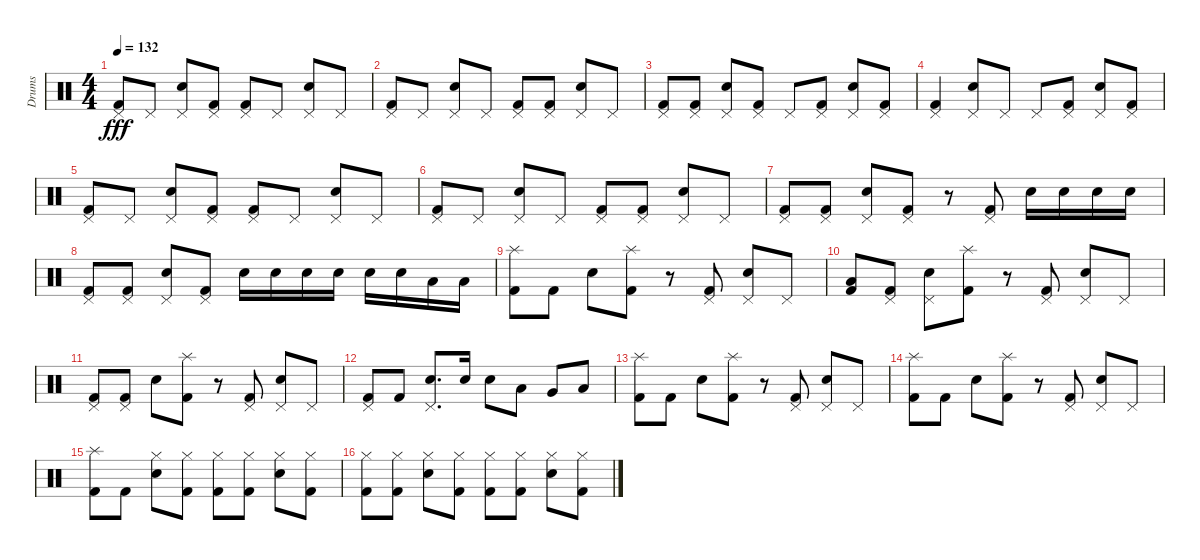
\track ("Drums" "Drums") {instrument percussion}
\staff {score}
\articulation defaults
\ts (4 4)
\tempo 132
\clef neutral
\ks c
("Kick (hit) 2" "Pedal Hi-Hat (hit)").8{dy fff} "Pedal Hi-Hat (hit)".8 ("Electric Snare (hit)" "Pedal Hi-Hat (hit)").8 ("Pedal Hi-Hat (hit)" "Kick (hit) 2").8 ("Kick (hit) 2" "Pedal Hi-Hat (hit)").8 "Pedal Hi-Hat (hit)".8 ("Electric Snare (hit)" "Pedal Hi-Hat (hit)").8 "Pedal Hi-Hat (hit)".8 |
("Kick (hit) 2" "Pedal Hi-Hat (hit)").8 "Pedal Hi-Hat (hit)".8 ("Electric Snare (hit)" "Pedal Hi-Hat (hit)").8 "Pedal Hi-Hat (hit)".8 ("Kick (hit) 2" "Pedal Hi-Hat (hit)").8 ("Pedal Hi-Hat (hit)" "Kick (hit) 2").8 ("Electric Snare (hit)" "Pedal Hi-Hat (hit)").8 "Pedal Hi-Hat (hit)".8 |
("Kick (hit) 2" "Pedal Hi-Hat (hit)").8 ("Kick (hit) 2" "Pedal Hi-Hat (hit)").8 ("Electric Snare (hit)" "Pedal Hi-Hat (hit)").8 ("Kick (hit) 2" "Pedal Hi-Hat (hit)").8 "Pedal Hi-Hat (hit)".8 ("Kick (hit) 2" "Pedal Hi-Hat (hit)").8 ("Electric Snare (hit)" "Pedal Hi-Hat (hit)").8 ("Kick (hit) 2" "Pedal Hi-Hat (hit)").8 |
("Kick (hit) 2" "Pedal Hi-Hat (hit)").4 ("Electric Snare (hit)" "Pedal Hi-Hat (hit)").8 "Pedal Hi-Hat (hit)".8 "Pedal Hi-Hat (hit)".8 ("Kick (hit) 2" "Pedal Hi-Hat (hit)").8 ("Electric Snare (hit)" "Pedal Hi-Hat (hit)").8 ("Kick (hit) 2" "Pedal Hi-Hat (hit)").8 |
("Kick (hit) 2" "Pedal Hi-Hat (hit)").8 "Pedal Hi-Hat (hit)".8 ("Electric Snare (hit)" "Pedal Hi-Hat (hit)").8 ("Kick (hit) 2" "Pedal Hi-Hat (hit)").8 ("Kick (hit) 2" "Pedal Hi-Hat (hit)").8 "Pedal Hi-Hat (hit)".8 ("Electric Snare (hit)" "Pedal Hi-Hat (hit)").8 "Pedal Hi-Hat (hit)".8 |
("Kick (hit) 2" "Pedal Hi-Hat (hit)").8 "Pedal Hi-Hat (hit)".8 ("Electric Snare (hit)" "Pedal Hi-Hat (hit)").8 "Pedal Hi-Hat (hit)".8 ("Kick (hit) 2" "Pedal Hi-Hat (hit)").8 ("Kick (hit) 2" "Pedal Hi-Hat (hit)").8 ("Electric Snare (hit)" "Pedal Hi-Hat (hit)").8 "Pedal Hi-Hat (hit)".8 |
("Kick (hit) 2" "Pedal Hi-Hat (hit)").8 ("Pedal Hi-Hat (hit)" "Kick (hit) 2").8 ("Electric Snare (hit)" "Pedal Hi-Hat (hit)").8 ("Kick (hit) 2" "Pedal Hi-Hat (hit)").8 r.8 ("Pedal Hi-Hat (hit)" "Kick (hit) 2").8 "Electric Snare (hit)".16 "Electric Snare (hit)".16 "Electric Snare (hit)".16 "Electric Snare (hit)".16 |
("Kick (hit) 2" "Pedal Hi-Hat (hit)").8 ("Kick (hit) 2" "Pedal Hi-Hat (hit)").8 ("Electric Snare (hit)" "Pedal Hi-Hat (hit)").8 ("Kick (hit) 2" "Pedal Hi-Hat (hit)").8 "Electric Snare (hit)".16 "Electric Snare (hit)".16 "Electric Snare (hit)".16 "Electric Snare (hit)".16 "Electric Snare (hit)".16 "Electric Snare (hit)".16 "Low Tom (hit)".16 "Low Tom (hit)".16 |
("Kick (hit) 2" "Splash (hit)").8 "Kick (hit) 2".8 "Electric Snare (hit)".8 ("Splash (hit)" "Kick (hit) 2").8 r.8 ("Kick (hit) 2" "Pedal Hi-Hat (hit)").8 ("Electric Snare (hit)" "Pedal Hi-Hat (hit)").8 "Pedal Hi-Hat (hit)".8 |
("Kick (hit) 2" "Low Tom (hit)").8 ("Pedal Hi-Hat (hit)" "Kick (hit) 2").8 ("Pedal Hi-Hat (hit)" "Electric Snare (hit)").8 ("Splash (hit)" "Kick (hit) 2").8 r.8 ("Kick (hit) 2" "Pedal Hi-Hat (hit)").8 ("Electric Snare (hit)" "Pedal Hi-Hat (hit)").8 "Pedal Hi-Hat (hit)".8 |
("Kick (hit) 2" "Pedal Hi-Hat (hit)").8 ("Pedal Hi-Hat (hit)" "Kick (hit) 2").8 "Electric Snare (hit)".8 ("Splash (hit)" "Kick (hit) 2").8 r.8 ("Kick (hit) 2" "Pedal Hi-Hat (hit)").8 ("Electric Snare (hit)" "Pedal Hi-Hat (hit)").8 "Pedal Hi-Hat (hit)".8 |
("Pedal Hi-Hat (hit)" "Kick (hit) 2").8 "Kick (hit) 2".8 ("Pedal Hi-Hat (hit)" "Electric Snare (hit)").8{d} "Electric Snare (hit)".16 "Electric Snare (hit)".8 "Low Tom (hit)".8 "Very Low Tom (hit)".8 "Low Floor Tom (hit)".8 |
("Kick (hit) 2" "Splash (hit)").8 "Kick (hit) 2".8 "Electric Snare (hit)".8 ("Splash (hit)" "Kick (hit) 2").8 r.8 ("Kick (hit) 2" "Pedal Hi-Hat (hit)").8 ("Electric Snare (hit)" "Pedal Hi-Hat (hit)").8 "Pedal Hi-Hat (hit)".8 |
("Kick (hit) 2" "Splash (hit)").8 "Kick (hit) 2".8 "Electric Snare (hit)".8 ("Splash (hit)" "Kick (hit) 2").8 r.8 ("Kick (hit) 2" "Pedal Hi-Hat (hit)").8 ("Electric Snare (hit)" "Pedal Hi-Hat (hit)").8 "Pedal Hi-Hat (hit)".8 |
("Splash (hit)" "Kick (hit) 2").8 "Kick (hit) 2".8 ("Hi-Hat (closed)" "Electric Snare (hit)").8 ("Hi-Hat (closed)" "Kick (hit) 2").8 ("Hi-Hat (closed)" "Kick (hit) 2").8 ("Hi-Hat (closed)" "Kick (hit) 2").8 ("Hi-Hat (closed)" "Electric Snare (hit)").8 ("Hi-Hat (closed)" "Kick (hit) 2").8 |
("Hi-Hat (closed)" "Kick (hit) 2").8 ("Hi-Hat (closed)" "Kick (hit) 2").8 ("Hi-Hat (closed)" "Electric Snare (hit)").8 ("Hi-Hat (closed)" "Kick (hit) 2").8 ("Hi-Hat (closed)" "Kick (hit) 2").8 ("Hi-Hat (closed)" "Kick (hit) 2").8 ("Hi-Hat (closed)" "Electric Snare (hit)").8 ("Hi-Hat (closed)" "Kick (hit) 2").8
